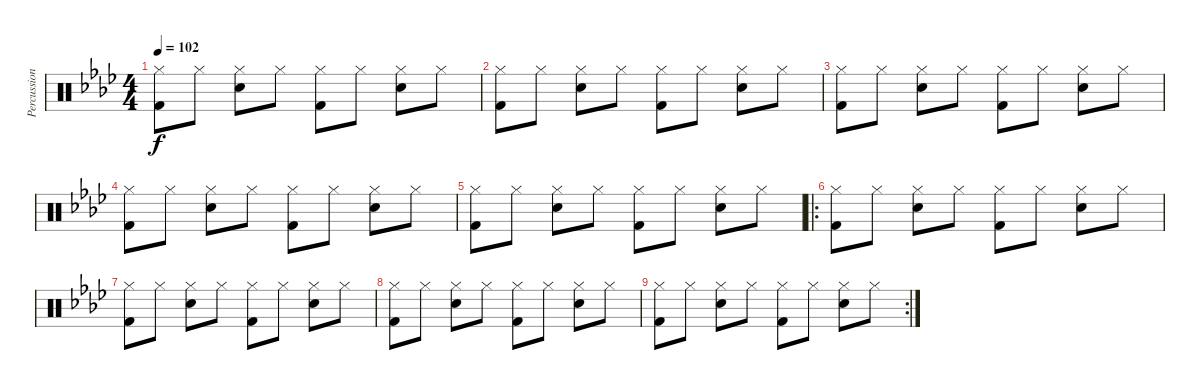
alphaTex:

\track ("Percussions" "Percussion") {instrument percussion}
\staff {score}
\articulation defaults
\ts (4 4)
\tempo 102
\clef neutral
\ks ab
("Hi-Hat (closed)" "Kick (hit) 2").8{dy f} "Hi-Hat (closed)".8 ("Hi-Hat (closed)" "Snare (hit) 2").8 "Hi-Hat (closed)".8 ("Hi-Hat (closed)" "Kick (hit) 2").8 "Hi-Hat (closed)".8 ("Hi-Hat (closed)" "Snare (hit) 2").8 "Hi-Hat (closed)".8 |
("Hi-Hat (closed)" "Kick (hit) 2").8 "Hi-Hat (closed)".8 ("Hi-Hat (closed)" "Snare (hit) 2").8 "Hi-Hat (closed)".8 ("Hi-Hat (closed)" "Kick (hit) 2").8 "Hi-Hat (closed)".8 ("Hi-Hat (closed)" "Snare (hit) 2").8 "Hi-Hat (closed)".8 |
("Hi-Hat (closed)" "Kick (hit) 2").8 "Hi-Hat (closed)".8 ("Hi-Hat (closed)" "Snare (hit) 2").8 "Hi-Hat (closed)".8 ("Hi-Hat (closed)" "Kick (hit) 2").8 "Hi-Hat (closed)".8 ("Hi-Hat (closed)" "Snare (hit) 2").8 "Hi-Hat (closed)".8 |
("Hi-Hat (closed)" "Kick (hit) 2").8 "Hi-Hat (closed)".8 ("Hi-Hat (closed)" "Snare (hit) 2").8 "Hi-Hat (closed)".8 ("Hi-Hat (closed)" "Kick (hit) 2").8 "Hi-Hat (closed)".8 ("Hi-Hat (closed)" "Snare (hit) 2").8 "Hi-Hat (closed)".8 |
("Hi-Hat (closed)" "Kick (hit) 2").8 "Hi-Hat (closed)".8 ("Hi-Hat (closed)" "Snare (hit) 2").8 "Hi-Hat (closed)".8 ("Hi-Hat (closed)" "Kick (hit) 2").8 "Hi-Hat (closed)".8 ("Hi-Hat (closed)" "Snare (hit) 2").8 "Hi-Hat (closed)".8 |
\ro
("Hi-Hat (closed)" "Kick (hit) 2").8 "Hi-Hat (closed)".8 ("Hi-Hat (closed)" "Snare (hit) 2").8 "Hi-Hat (closed)".8 ("Hi-Hat (closed)" "Kick (hit) 2").8 "Hi-Hat (closed)".8 ("Hi-Hat (closed)" "Snare (hit) 2").8 "Hi-Hat (closed)".8 |
("Hi-Hat (closed)" "Kick (hit) 2").8 "Hi-Hat (closed)".8 ("Hi-Hat (closed)" "Snare (hit) 2").8 "Hi-Hat (closed)".8 ("Hi-Hat (closed)" "Kick (hit) 2").8 "Hi-Hat (closed)".8 ("Hi-Hat (closed)" "Snare (hit) 2").8 "Hi-Hat (closed)".8 |
("Hi-Hat (closed)" "Kick (hit) 2").8 "Hi-Hat (closed)".8 ("Hi-Hat (closed)" "Snare (hit) 2").8 "Hi-Hat (closed)".8 ("Hi-Hat (closed)" "Kick (hit) 2").8 "Hi-Hat (closed)".8 ("Hi-Hat (closed)" "Snare (hit) 2").8 "Hi-Hat (closed)".8 |
\rc 2
("Hi-Hat (closed)" "Kick (hit) 2").8 "Hi-Hat (closed)".8 ("Hi-Hat (closed)" "Snare (hit) 2").8 "Hi-Hat (closed)".8 ("Hi-Hat (closed)" "Kick (hit) 2").8 "Hi-Hat (closed)".8 ("Hi-Hat (closed)" "Snare (hit) 2").8 "Hi-Hat (closed)".8
